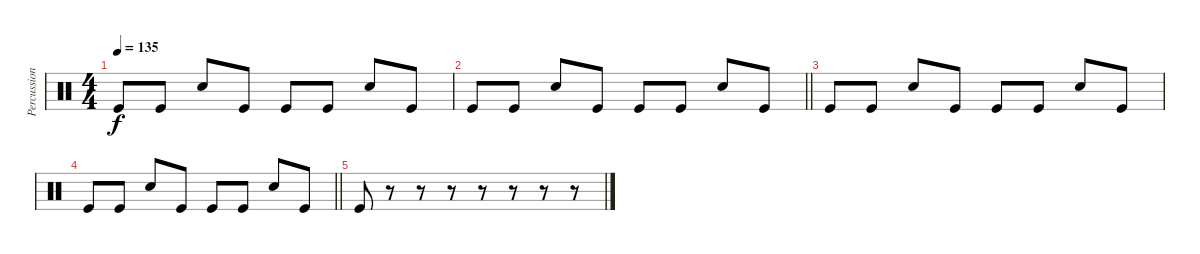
\track ("Percussion" "Percussion") {instrument percussion}
\staff {score}
\articulation defaults
\ts (4 4)
\tempo 135
\clef neutral
\ks c "Kick (hit)".8{dy f} "Kick (hit)".8 "Snare (hit) 2".8 "Kick (hit)".8 "Kick (hit)".8 "Kick (hit)".8 "Snare (hit) 2".8 "Kick (hit)".8
|
\barLineRight lightlight "Kick (hit)".8 "Kick (hit)".8 "Snare (hit) 2".8 "Kick (hit)".8 "Kick (hit)".8 "Kick (hit)".8 "Snare (hit) 2".8 "Kick (hit)".8
|
"Kick (hit)".8 "Kick (hit)".8 "Snare (hit) 2".8 "Kick (hit)".8 "Kick (hit)".8 "Kick (hit)".8 "Snare (hit) 2".8 "Kick (hit)".8 |
\barLineRight lightlight "Kick (hit)".8 "Kick (hit)".8 "Snare (hit) 2".8 "Kick (hit)".8 "Kick (hit)".8 "Kick (hit)".8 "Snare (hit) 2".8 "Kick (hit)".8
|
"Kick (hit)".8 r.8 r.8 r.8 r.8 r.8 r.8 r.8
